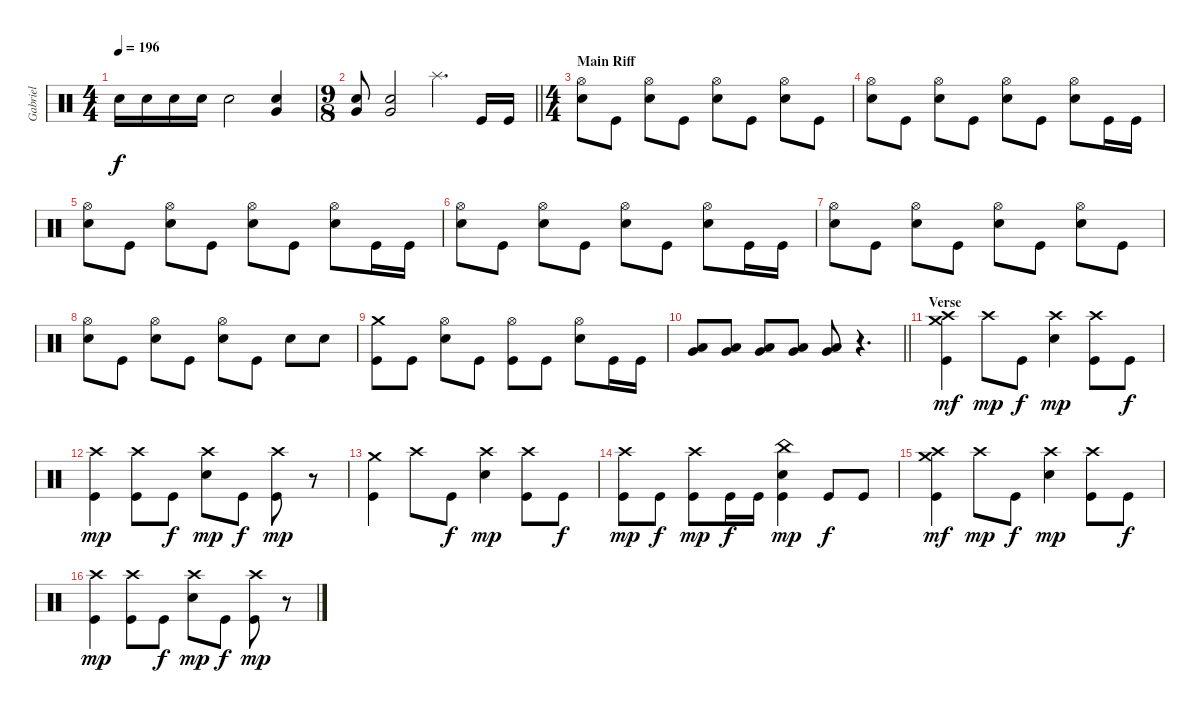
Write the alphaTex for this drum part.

\track ("Gabriel" "Gabriel") {instrument percussion}
\staff {score}
\articulation defaults
\ts (4 4)
\tempo 196
\clef neutral
\ks aminor "Snare (hit) 2".16{dy f} "Snare (hit) 2".16 "Snare (hit) 2".16 "Snare (hit) 2".16 "Snare (hit) 2".2
("Very Low Tom (hit)" "Snare (hit) 2").4 |
\ts (9 8)
\barLineRight lightlight
("Very Low Tom (hit)" "Snare (hit) 2").8 ("Very Low Tom (hit)" "Snare (hit) 2").2 "Splash (hit)".4{d} "Kick (hit)".16 "Kick (hit)".16 |
\ts (4 4)
\section ("" "Main Riff")
("Hi-Hat (open)" "Snare (hit) 2").8 "Kick (hit)".8 ("Hi-Hat (open)" "Snare (hit) 2").8 "Kick (hit)".8 ("Hi-Hat (open)" "Snare (hit) 2").8 "Kick (hit)".8 ("Hi-Hat (open)" "Snare (hit) 2").8 "Kick (hit)".8 |
("Hi-Hat (open)" "Snare (hit) 2").8 "Kick (hit)".8 ("Hi-Hat (open)" "Snare (hit) 2").8 "Kick (hit)".8 ("Hi-Hat (open)" "Snare (hit) 2").8 "Kick (hit)".8 ("Hi-Hat (open)" "Snare (hit) 2").8 "Kick (hit)".16 "Kick (hit)".16 |
("Hi-Hat (open)" "Snare (hit) 2").8 "Kick (hit)".8 ("Hi-Hat (open)" "Snare (hit) 2").8 "Kick (hit)".8 ("Hi-Hat (open)" "Snare (hit) 2").8 "Kick (hit)".8 ("Hi-Hat (open)" "Snare (hit) 2").8 "Kick (hit)".16 "Kick (hit)".16 |
("Hi-Hat (open)" "Snare (hit) 2").8 "Kick (hit)".8 ("Hi-Hat (open)" "Snare (hit) 2").8 "Kick (hit)".8 ("Hi-Hat (open)" "Snare (hit) 2").8 "Kick (hit)".8 ("Hi-Hat (open)" "Snare (hit) 2").8 "Kick (hit)".16 "Kick (hit)".16 |
("Hi-Hat (open)" "Snare (hit) 2").8 "Kick (hit)".8 ("Hi-Hat (open)" "Snare (hit) 2").8 "Kick (hit)".8 ("Hi-Hat (open)" "Snare (hit) 2").8 "Kick (hit)".8 ("Hi-Hat (open)" "Snare (hit) 2").8 "Kick (hit)".8 |
("Hi-Hat (open)" "Snare (hit) 2").8 "Kick (hit)".8 ("Hi-Hat (open)" "Snare (hit) 2").8 "Kick (hit)".8 ("Hi-Hat (open)" "Snare (hit) 2").8 "Kick (hit)".8 "Snare (hit) 2".8 "Snare (hit) 2".8 |
("Crash medium (hit)" "Kick (hit)").8 "Kick (hit)".8 ("Hi-Hat (open)" "Snare (hit) 2").8 "Kick (hit)".8 ("Hi-Hat (open)" "Kick (hit)").8 "Kick (hit)".8 ("Hi-Hat (open)" "Snare (hit) 2").8 "Kick (hit)".16 "Kick (hit)".16 |
\barLineRight lightlight
("Very Low Tom (hit)" "Low Tom (hit)").8 ("Very Low Tom (hit)" "Low Tom (hit)").8 ("Very Low Tom (hit)" "Low Tom (hit)").8 ("Very Low Tom (hit)" "Low Tom (hit)").8 ("Very Low Tom (hit)" "Low Tom (hit)").8 r.4{d} |
\section ("" "Verse")
("Crash high (hit)" "Crash medium (hit)" "Kick (hit)").4{dy mf} "Crash high (hit)".8{dy mp} "Kick (hit)".8{dy f} ("Crash high (hit)" "Snare (hit) 2").4{dy mp} ("Crash high (hit)" "Kick (hit)").8 "Kick (hit)".8{dy f} |
("Crash high (hit)" "Kick (hit)").4{dy mp} ("Crash high (hit)" "Kick (hit)").8 "Kick (hit)".8{dy f} ("Crash high (hit)" "Snare (hit) 2").8{dy mp} "Kick (hit)".8{dy f} ("Crash high (hit)" "Kick (hit)").8{dy mp} r.8 |
("Crash medium (hit)" "Kick (hit)").4 "Crash high (hit)".8 "Kick (hit)".8{dy f} ("Crash high (hit)" "Snare (hit) 2").4{dy mp} ("Crash high (hit)" "Kick (hit)").8 "Kick (hit)".8{dy f} |
("Crash high (hit)" "Kick (hit)").8{dy mp} "Kick (hit)".8{dy f} ("Crash high (hit)" "Kick (hit)").8{dy mp} "Kick (hit)".16{dy f} "Kick (hit)".16 ("China (hit)" "Snare (hit) 2" "Kick (hit)").4{dy mp} "Kick (hit)".8{dy f} "Kick (hit)".8 |
("Crash high (hit)" "Crash medium (hit)" "Kick (hit)").4{dy mf} "Crash high (hit)".8{dy mp} "Kick (hit)".8{dy f} ("Crash high (hit)" "Snare (hit) 2").4{dy mp} ("Crash high (hit)" "Kick (hit)").8 "Kick (hit)".8{dy f} |
("Crash high (hit)" "Kick (hit)").4{dy mp} ("Crash high (hit)" "Kick (hit)").8 "Kick (hit)".8{dy f} ("Crash high (hit)" "Snare (hit) 2").8{dy mp} "Kick (hit)".8{dy f} ("Crash high (hit)" "Kick (hit)").8{dy mp} r.8
